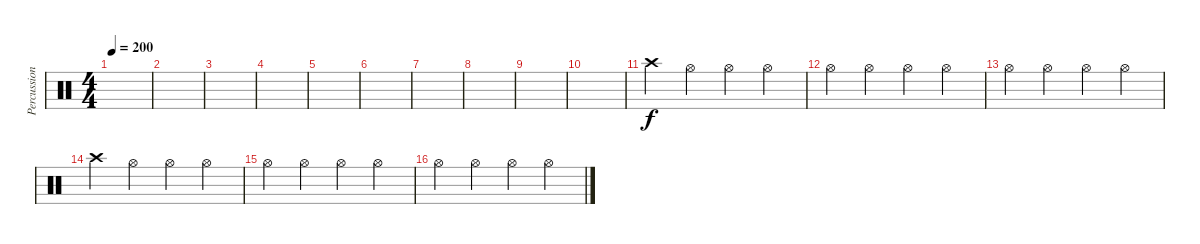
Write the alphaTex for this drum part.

\track ("Percussion" "Percussion") {instrument percussion}
\staff {score}
\articulation defaults
\ts (4 4)
\tempo 200
\clef neutral
\ks c
|
|
|
|
|
|
|
|
|
|
"Crash high (hit)".4 "Hi-Hat (open)".4 "Hi-Hat (open)".4 "Hi-Hat (open)".4 |
"Hi-Hat (open)".4 "Hi-Hat (open)".4 "Hi-Hat (open)".4 "Hi-Hat (open)".4 |
"Hi-Hat (open)".4 "Hi-Hat (open)".4 "Hi-Hat (open)".4 "Hi-Hat (open)".4 |
"Crash high (hit)".4 "Hi-Hat (open)".4 "Hi-Hat (open)".4 "Hi-Hat (open)".4 |
"Hi-Hat (open)".4 "Hi-Hat (open)".4 "Hi-Hat (open)".4 "Hi-Hat (open)".4 |
"Hi-Hat (open)".4 "Hi-Hat (open)".4 "Hi-Hat (open)".4 "Hi-Hat (open)".4
